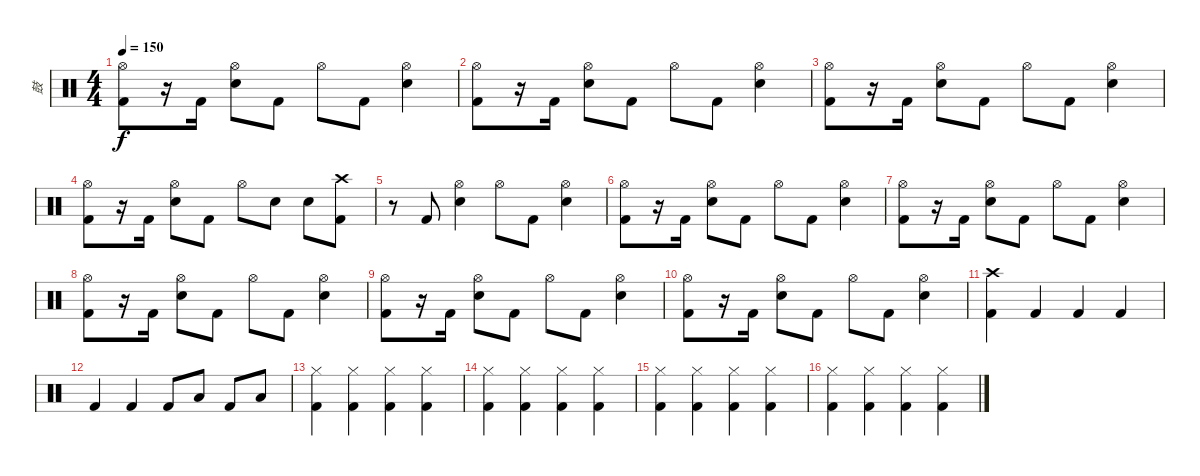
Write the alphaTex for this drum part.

\track ("鼓" "鼓") {instrument percussion}
\staff {score}
\articulation defaults
\ts (4 4)
\tempo 150
\clef neutral
\ks c
("Hi-Hat (open)" "Kick (hit) 2").8{dy f} r.16 "Kick (hit) 2".16 ("Hi-Hat (open)" "Snare (hit) 2").8 "Kick (hit) 2".8 "Hi-Hat (open)".8 "Kick (hit) 2".8 ("Hi-Hat (open)" "Snare (hit) 2").4 |
("Hi-Hat (open)" "Kick (hit) 2").8 r.16 "Kick (hit) 2".16 ("Hi-Hat (open)" "Snare (hit) 2").8 "Kick (hit) 2".8 "Hi-Hat (open)".8 "Kick (hit) 2".8 ("Hi-Hat (open)" "Snare (hit) 2").4 |
("Hi-Hat (open)" "Kick (hit) 2").8 r.16 "Kick (hit) 2".16 ("Hi-Hat (open)" "Snare (hit) 2").8 "Kick (hit) 2".8 "Hi-Hat (open)".8 "Kick (hit) 2".8 ("Hi-Hat (open)" "Snare (hit) 2").4 |
("Hi-Hat (open)" "Kick (hit) 2").8 r.16 "Kick (hit) 2".16 ("Hi-Hat (open)" "Snare (hit) 2").8 "Kick (hit) 2".8 "Hi-Hat (open)".8 "Snare (hit) 2".8 "Snare (hit) 2".8 ("Crash high (hit)" "Kick (hit) 2").8 |
r.8 "Kick (hit) 2".8 ("Hi-Hat (open)" "Snare (hit) 2").4 "Hi-Hat (open)".8 "Kick (hit) 2".8 ("Hi-Hat (open)" "Snare (hit) 2").4 |
("Hi-Hat (open)" "Kick (hit) 2").8 r.16 "Kick (hit) 2".16 ("Hi-Hat (open)" "Snare (hit) 2").8 "Kick (hit) 2".8 "Hi-Hat (open)".8 "Kick (hit) 2".8 ("Hi-Hat (open)" "Snare (hit) 2").4 |
("Hi-Hat (open)" "Kick (hit) 2").8 r.16 "Kick (hit) 2".16 ("Hi-Hat (open)" "Snare (hit) 2").8 "Kick (hit) 2".8 "Hi-Hat (open)".8 "Kick (hit) 2".8 ("Hi-Hat (open)" "Snare (hit) 2").4 |
("Hi-Hat (open)" "Kick (hit) 2").8 r.16 "Kick (hit) 2".16 ("Hi-Hat (open)" "Snare (hit) 2").8 "Kick (hit) 2".8 "Hi-Hat (open)".8 "Kick (hit) 2".8 ("Hi-Hat (open)" "Snare (hit) 2").4 |
("Hi-Hat (open)" "Kick (hit) 2").8 r.16 "Kick (hit) 2".16 ("Hi-Hat (open)" "Snare (hit) 2").8 "Kick (hit) 2".8 "Hi-Hat (open)".8 "Kick (hit) 2".8 ("Hi-Hat (open)" "Snare (hit) 2").4 |
("Hi-Hat (open)" "Kick (hit) 2").8 r.16 "Kick (hit) 2".16 ("Hi-Hat (open)" "Snare (hit) 2").8 "Kick (hit) 2".8 "Hi-Hat (open)".8 "Kick (hit) 2".8 ("Hi-Hat (open)" "Snare (hit) 2").4 |
("Crash high (hit)" "Kick (hit) 2").4 "Kick (hit) 2".4 "Kick (hit) 2".4 "Kick (hit) 2".4 |
"Kick (hit) 2".4 "Kick (hit) 2".4 "Kick (hit) 2".8 "Low Tom (hit)".8 "Kick (hit) 2".8 "Low Floor Tom (hit)".8 |
("Hi-Hat (closed)" "Kick (hit) 2").4 ("Hi-Hat (closed)" "Kick (hit) 2").4 ("Hi-Hat (closed)" "Kick (hit) 2").4 ("Hi-Hat (closed)" "Kick (hit) 2").4 |
("Hi-Hat (closed)" "Kick (hit) 2").4 ("Hi-Hat (closed)" "Kick (hit) 2").4 ("Hi-Hat (closed)" "Kick (hit) 2").4 ("Hi-Hat (closed)" "Kick (hit) 2").4 |
("Hi-Hat (closed)" "Kick (hit) 2").4 ("Hi-Hat (closed)" "Kick (hit) 2").4 ("Hi-Hat (closed)" "Kick (hit) 2").4 ("Hi-Hat (closed)" "Kick (hit) 2").4 |
("Hi-Hat (closed)" "Kick (hit) 2").4 ("Hi-Hat (closed)" "Kick (hit) 2").4 ("Hi-Hat (closed)" "Kick (hit) 2").4 ("Hi-Hat (closed)" "Kick (hit) 2").4
